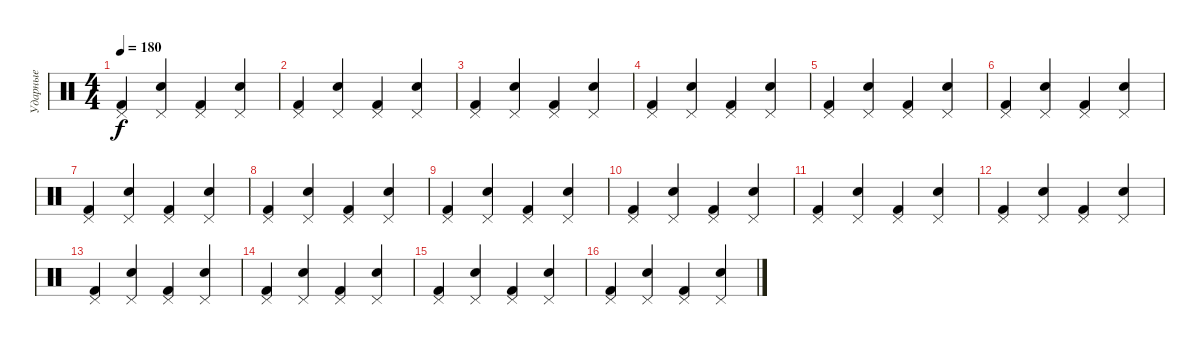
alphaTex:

\track ("Ударные" "Ударные") {instrument percussion}
\staff {score}
\articulation defaults
\ts (4 4)
\tempo 180
\clef neutral
\ks c
("Kick (hit) 2" "Pedal Hi-Hat (hit)").4{dy f} ("Electric Snare (hit)" "Pedal Hi-Hat (hit)").4 ("Kick (hit) 2" "Pedal Hi-Hat (hit)").4 ("Electric Snare (hit)" "Pedal Hi-Hat (hit)").4 |
("Kick (hit) 2" "Pedal Hi-Hat (hit)").4 ("Electric Snare (hit)" "Pedal Hi-Hat (hit)").4 ("Kick (hit) 2" "Pedal Hi-Hat (hit)").4 ("Electric Snare (hit)" "Pedal Hi-Hat (hit)").4 |
("Kick (hit) 2" "Pedal Hi-Hat (hit)").4 ("Electric Snare (hit)" "Pedal Hi-Hat (hit)").4 ("Kick (hit) 2" "Pedal Hi-Hat (hit)").4 ("Electric Snare (hit)" "Pedal Hi-Hat (hit)").4 |
("Kick (hit) 2" "Pedal Hi-Hat (hit)").4 ("Electric Snare (hit)" "Pedal Hi-Hat (hit)").4 ("Kick (hit) 2" "Pedal Hi-Hat (hit)").4 ("Electric Snare (hit)" "Pedal Hi-Hat (hit)").4 |
("Kick (hit) 2" "Pedal Hi-Hat (hit)").4 ("Electric Snare (hit)" "Pedal Hi-Hat (hit)").4 ("Kick (hit) 2" "Pedal Hi-Hat (hit)").4 ("Electric Snare (hit)" "Pedal Hi-Hat (hit)").4 |
("Kick (hit) 2" "Pedal Hi-Hat (hit)").4 ("Electric Snare (hit)" "Pedal Hi-Hat (hit)").4 ("Kick (hit) 2" "Pedal Hi-Hat (hit)").4 ("Electric Snare (hit)" "Pedal Hi-Hat (hit)").4 |
("Kick (hit) 2" "Pedal Hi-Hat (hit)").4 ("Electric Snare (hit)" "Pedal Hi-Hat (hit)").4 ("Kick (hit) 2" "Pedal Hi-Hat (hit)").4 ("Electric Snare (hit)" "Pedal Hi-Hat (hit)").4 |
("Kick (hit) 2" "Pedal Hi-Hat (hit)").4 ("Electric Snare (hit)" "Pedal Hi-Hat (hit)").4 ("Kick (hit) 2" "Pedal Hi-Hat (hit)").4 ("Electric Snare (hit)" "Pedal Hi-Hat (hit)").4 |
("Kick (hit) 2" "Pedal Hi-Hat (hit)").4 ("Electric Snare (hit)" "Pedal Hi-Hat (hit)").4 ("Kick (hit) 2" "Pedal Hi-Hat (hit)").4 ("Electric Snare (hit)" "Pedal Hi-Hat (hit)").4 |
("Kick (hit) 2" "Pedal Hi-Hat (hit)").4 ("Electric Snare (hit)" "Pedal Hi-Hat (hit)").4 ("Kick (hit) 2" "Pedal Hi-Hat (hit)").4 ("Electric Snare (hit)" "Pedal Hi-Hat (hit)").4 |
("Kick (hit) 2" "Pedal Hi-Hat (hit)").4 ("Electric Snare (hit)" "Pedal Hi-Hat (hit)").4 ("Kick (hit) 2" "Pedal Hi-Hat (hit)").4 ("Electric Snare (hit)" "Pedal Hi-Hat (hit)").4 |
("Kick (hit) 2" "Pedal Hi-Hat (hit)").4 ("Electric Snare (hit)" "Pedal Hi-Hat (hit)").4 ("Kick (hit) 2" "Pedal Hi-Hat (hit)").4 ("Electric Snare (hit)" "Pedal Hi-Hat (hit)").4 |
("Kick (hit) 2" "Pedal Hi-Hat (hit)").4 ("Electric Snare (hit)" "Pedal Hi-Hat (hit)").4 ("Kick (hit) 2" "Pedal Hi-Hat (hit)").4 ("Electric Snare (hit)" "Pedal Hi-Hat (hit)").4 |
("Kick (hit) 2" "Pedal Hi-Hat (hit)").4 ("Electric Snare (hit)" "Pedal Hi-Hat (hit)").4 ("Kick (hit) 2" "Pedal Hi-Hat (hit)").4 ("Electric Snare (hit)" "Pedal Hi-Hat (hit)").4 |
("Kick (hit) 2" "Pedal Hi-Hat (hit)").4 ("Electric Snare (hit)" "Pedal Hi-Hat (hit)").4 ("Kick (hit) 2" "Pedal Hi-Hat (hit)").4 ("Electric Snare (hit)" "Pedal Hi-Hat (hit)").4 |
("Kick (hit) 2" "Pedal Hi-Hat (hit)").4 ("Electric Snare (hit)" "Pedal Hi-Hat (hit)").4 ("Kick (hit) 2" "Pedal Hi-Hat (hit)").4 ("Electric Snare (hit)" "Pedal Hi-Hat (hit)").4
